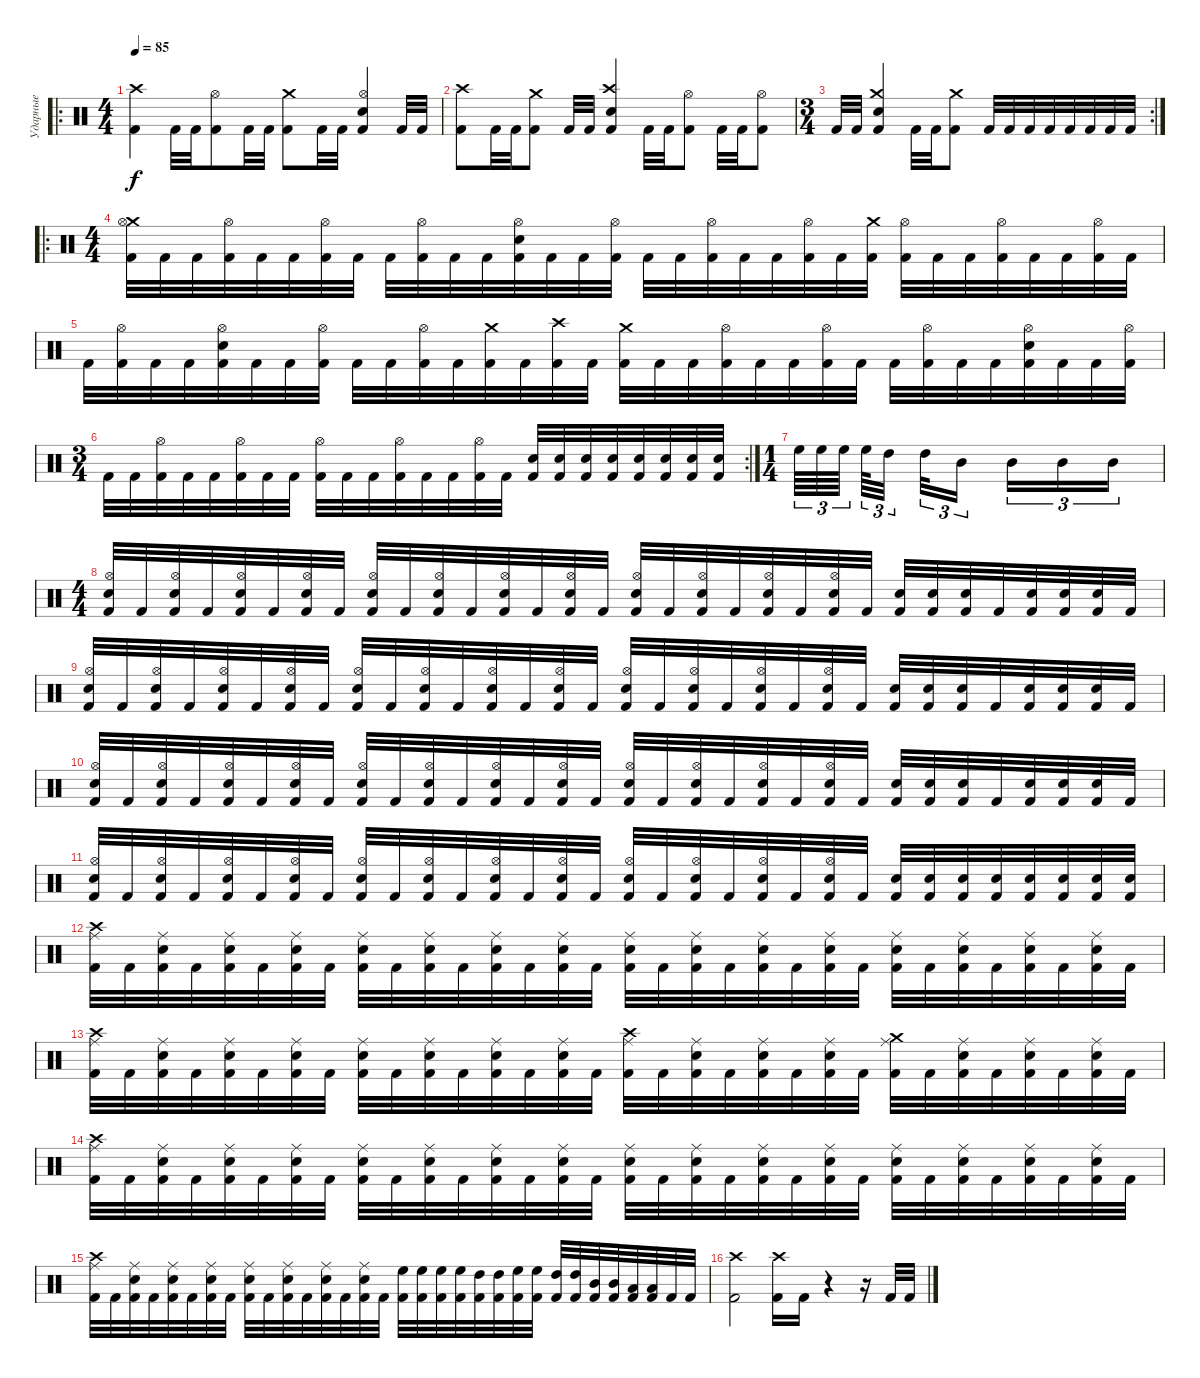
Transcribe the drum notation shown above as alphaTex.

\track ("Ударные" "Ударные") {instrument percussion}
\staff {score}
\articulation defaults
\ro
\ts (4 4)
\tempo 85
\clef neutral
\ks c
("Kick (hit) 2" "Crash high (hit)").4{dy f} "Kick (hit) 2".32 "Kick (hit) 2".32 ("Kick (hit) 2" "Hi-Hat (open)").8 "Kick (hit) 2".32 "Kick (hit) 2".32 ("Kick (hit) 2" "Crash medium (hit)").8 "Kick (hit) 2".32 "Kick (hit) 2".32 ("Kick (hit) 2" "Hi-Hat (open)" "Electric Snare (hit)").4 "Kick (hit) 2".32 "Kick (hit) 2".32 |
("Crash high (hit)" "Kick (hit) 2").8 "Kick (hit) 2".32 "Kick (hit) 2".32 ("Crash medium (hit)" "Kick (hit) 2").8 "Kick (hit) 2".32 "Kick (hit) 2".32 ("Crash high (hit)" "Electric Snare (hit)" "Kick (hit) 2").4 "Kick (hit) 2".32 "Kick (hit) 2".32 ("Hi-Hat (open)" "Kick (hit) 2").8 "Kick (hit) 2".32 "Kick (hit) 2".32 ("Hi-Hat (open)" "Kick (hit) 2").8 |
\rc 2
\ts (3 4)
"Kick (hit) 2".32 "Kick (hit) 2".32 ("Electric Snare (hit)" "Crash medium (hit)" "Kick (hit) 2").4 "Kick (hit) 2".32 "Kick (hit) 2".32 ("Crash medium (hit)" "Kick (hit) 2").8 "Kick (hit) 2".32 "Kick (hit) 2".32 "Kick (hit) 2".32 "Kick (hit) 2".32 "Kick (hit) 2".32 "Kick (hit) 2".32 "Kick (hit) 2".32 "Kick (hit) 2".32 |
\ro
\ts (4 4)
("Crash medium (hit)" "Hi-Hat (open)" "Kick (hit) 2").32 "Kick (hit) 2".32 "Kick (hit) 2".32 ("Hi-Hat (open)" "Kick (hit) 2").32 "Kick (hit) 2".32 "Kick (hit) 2".32 ("Hi-Hat (open)" "Kick (hit) 2").32 "Kick (hit) 2".32 "Kick (hit) 2".32 ("Hi-Hat (open)" "Kick (hit) 2").32 "Kick (hit) 2".32 "Kick (hit) 2".32 ("Hi-Hat (open)" "Electric Snare (hit)" "Kick (hit) 2").32 "Kick (hit) 2".32 "Kick (hit) 2".32 ("Hi-Hat (open)" "Kick (hit) 2").32 "Kick (hit) 2".32 "Kick (hit) 2".32 ("Hi-Hat (open)" "Kick (hit) 2").32 "Kick (hit) 2".32 "Kick (hit) 2".32 ("Hi-Hat (open)" "Kick (hit) 2").32 "Kick (hit) 2".32 ("Crash medium (hit)" "Kick (hit) 2").32 ("Hi-Hat (open)" "Kick (hit) 2").32 "Kick (hit) 2".32 "Kick (hit) 2".32 ("Hi-Hat (open)" "Kick (hit) 2").32 "Kick (hit) 2".32 "Kick (hit) 2".32 ("Hi-Hat (open)" "Kick (hit) 2").32 "Kick (hit) 2".32 |
"Kick (hit) 2".32 ("Hi-Hat (open)" "Kick (hit) 2").32 "Kick (hit) 2".32 "Kick (hit) 2".32 ("Hi-Hat (open)" "Electric Snare (hit)" "Kick (hit) 2").32 "Kick (hit) 2".32 "Kick (hit) 2".32 ("Hi-Hat (open)" "Kick (hit) 2").32 "Kick (hit) 2".32 "Kick (hit) 2".32 ("Hi-Hat (open)" "Kick (hit) 2").32 "Kick (hit) 2".32 ("Crash medium (hit)" "Kick (hit) 2").32 "Kick (hit) 2".32 ("Crash high (hit)" "Kick (hit) 2").32 "Kick (hit) 2".32 ("Crash medium (hit)" "Kick (hit) 2").32 "Kick (hit) 2".32 "Kick (hit) 2".32 ("Hi-Hat (open)" "Kick (hit) 2").32 "Kick (hit) 2".32 "Kick (hit) 2".32 ("Hi-Hat (open)" "Kick (hit) 2").32 "Kick (hit) 2".32 "Kick (hit) 2".32 ("Hi-Hat (open)" "Kick (hit) 2").32 "Kick (hit) 2".32 "Kick (hit) 2".32 ("Hi-Hat (open)" "Electric Snare (hit)" "Kick (hit) 2").32 "Kick (hit) 2".32 "Kick (hit) 2".32 ("Hi-Hat (open)" "Kick (hit) 2").32 |
\rc 2
\ts (3 4)
"Kick (hit) 2".32 "Kick (hit) 2".32 ("Hi-Hat (open)" "Kick (hit) 2").32 "Kick (hit) 2".32 "Kick (hit) 2".32 ("Hi-Hat (open)" "Kick (hit) 2").32 "Kick (hit) 2".32 "Kick (hit) 2".32 ("Hi-Hat (open)" "Kick (hit) 2").32 "Kick (hit) 2".32 "Kick (hit) 2".32 ("Hi-Hat (open)" "Kick (hit) 2").32 "Kick (hit) 2".32 "Kick (hit) 2".32 ("Hi-Hat (open)" "Kick (hit) 2").32 "Kick (hit) 2".32 ("Electric Snare (hit)" "Kick (hit) 2").32 ("Electric Snare (hit)" "Kick (hit) 2").32 ("Electric Snare (hit)" "Kick (hit) 2").32 ("Electric Snare (hit)" "Kick (hit) 2").32 ("Electric Snare (hit)" "Kick (hit) 2").32 ("Electric Snare (hit)" "Kick (hit) 2").32 ("Electric Snare (hit)" "Kick (hit) 2").32 ("Electric Snare (hit)" "Kick (hit) 2").32 |
\ts (1 4)
"High Floor Tom (hit)".64{tu (3 2)} "High Floor Tom (hit)".64{tu (3 2)} "High Floor Tom (hit)".64{tu (3 2) beam splitsecondary} "High Floor Tom (hit)".64{tu (3 2)} "High Tom (hit)".32{tu (3 2) beam splitsecondary} "High Tom (hit)".32{tu (3 2)} "Mid Tom (hit)".16{tu (3 2) beam splitsecondary} "Mid Tom (hit)".16{tu (3 2)} "Mid Tom (hit)".16{tu (3 2)} "Mid Tom (hit)".16{tu (3 2)} |
\ts (4 4)
("Kick (hit) 2" "Electric Snare (hit)" "Hi-Hat (open)").32 "Kick (hit) 2".32 ("Kick (hit) 2" "Electric Snare (hit)" "Hi-Hat (open)").32 "Kick (hit) 2".32 ("Kick (hit) 2" "Electric Snare (hit)" "Hi-Hat (open)").32 "Kick (hit) 2".32 ("Kick (hit) 2" "Electric Snare (hit)" "Hi-Hat (open)").32 "Kick (hit) 2".32 ("Kick (hit) 2" "Electric Snare (hit)" "Hi-Hat (open)").32 "Kick (hit) 2".32 ("Kick (hit) 2" "Electric Snare (hit)" "Hi-Hat (open)").32 "Kick (hit) 2".32 ("Kick (hit) 2" "Electric Snare (hit)" "Hi-Hat (open)").32 "Kick (hit) 2".32 ("Kick (hit) 2" "Electric Snare (hit)" "Hi-Hat (open)").32 "Kick (hit) 2".32 ("Kick (hit) 2" "Electric Snare (hit)" "Hi-Hat (open)").32 "Kick (hit) 2".32 ("Kick (hit) 2" "Electric Snare (hit)" "Hi-Hat (open)").32 "Kick (hit) 2".32 ("Kick (hit) 2" "Electric Snare (hit)" "Hi-Hat (open)").32 "Kick (hit) 2".32 ("Kick (hit) 2" "Electric Snare (hit)" "Hi-Hat (open)").32 "Kick (hit) 2".32 ("Kick (hit) 2" "Electric Snare (hit)").32 ("Kick (hit) 2" "Electric Snare (hit)").32 ("Kick (hit) 2" "Electric Snare (hit)").32 "Kick (hit) 2".32 ("Kick (hit) 2" "Electric Snare (hit)").32 ("Kick (hit) 2" "Electric Snare (hit)").32 ("Kick (hit) 2" "Electric Snare (hit)").32 "Kick (hit) 2".32 |
("Kick (hit) 2" "Electric Snare (hit)" "Hi-Hat (open)").32 "Kick (hit) 2".32 ("Kick (hit) 2" "Electric Snare (hit)" "Hi-Hat (open)").32 "Kick (hit) 2".32 ("Kick (hit) 2" "Electric Snare (hit)" "Hi-Hat (open)").32 "Kick (hit) 2".32 ("Kick (hit) 2" "Electric Snare (hit)" "Hi-Hat (open)").32 "Kick (hit) 2".32 ("Kick (hit) 2" "Electric Snare (hit)" "Hi-Hat (open)").32 "Kick (hit) 2".32 ("Kick (hit) 2" "Electric Snare (hit)" "Hi-Hat (open)").32 "Kick (hit) 2".32 ("Kick (hit) 2" "Electric Snare (hit)" "Hi-Hat (open)").32 "Kick (hit) 2".32 ("Kick (hit) 2" "Electric Snare (hit)" "Hi-Hat (open)").32 "Kick (hit) 2".32 ("Kick (hit) 2" "Electric Snare (hit)" "Hi-Hat (open)").32 "Kick (hit) 2".32 ("Kick (hit) 2" "Electric Snare (hit)" "Hi-Hat (open)").32 "Kick (hit) 2".32 ("Kick (hit) 2" "Electric Snare (hit)" "Hi-Hat (open)").32 "Kick (hit) 2".32 ("Kick (hit) 2" "Electric Snare (hit)" "Hi-Hat (open)").32 "Kick (hit) 2".32 ("Kick (hit) 2" "Electric Snare (hit)").32 ("Kick (hit) 2" "Electric Snare (hit)").32 ("Kick (hit) 2" "Electric Snare (hit)").32 "Kick (hit) 2".32 ("Kick (hit) 2" "Electric Snare (hit)").32 ("Kick (hit) 2" "Electric Snare (hit)").32 ("Kick (hit) 2" "Electric Snare (hit)").32 "Kick (hit) 2".32 |
("Kick (hit) 2" "Electric Snare (hit)" "Hi-Hat (open)").32 "Kick (hit) 2".32 ("Kick (hit) 2" "Electric Snare (hit)" "Hi-Hat (open)").32 "Kick (hit) 2".32 ("Kick (hit) 2" "Electric Snare (hit)" "Hi-Hat (open)").32 "Kick (hit) 2".32 ("Kick (hit) 2" "Electric Snare (hit)" "Hi-Hat (open)").32 "Kick (hit) 2".32 ("Kick (hit) 2" "Electric Snare (hit)" "Hi-Hat (open)").32 "Kick (hit) 2".32 ("Kick (hit) 2" "Electric Snare (hit)" "Hi-Hat (open)").32 "Kick (hit) 2".32 ("Kick (hit) 2" "Electric Snare (hit)" "Hi-Hat (open)").32 "Kick (hit) 2".32 ("Kick (hit) 2" "Electric Snare (hit)" "Hi-Hat (open)").32 "Kick (hit) 2".32 ("Kick (hit) 2" "Electric Snare (hit)" "Hi-Hat (open)").32 "Kick (hit) 2".32 ("Kick (hit) 2" "Electric Snare (hit)" "Hi-Hat (open)").32 "Kick (hit) 2".32 ("Kick (hit) 2" "Electric Snare (hit)" "Hi-Hat (open)").32 "Kick (hit) 2".32 ("Kick (hit) 2" "Electric Snare (hit)" "Hi-Hat (open)").32 "Kick (hit) 2".32 ("Kick (hit) 2" "Electric Snare (hit)").32 ("Kick (hit) 2" "Electric Snare (hit)").32 ("Kick (hit) 2" "Electric Snare (hit)").32 "Kick (hit) 2".32 ("Kick (hit) 2" "Electric Snare (hit)").32 ("Kick (hit) 2" "Electric Snare (hit)").32 ("Kick (hit) 2" "Electric Snare (hit)").32 "Kick (hit) 2".32 |
("Kick (hit) 2" "Electric Snare (hit)" "Hi-Hat (open)").32 "Kick (hit) 2".32 ("Kick (hit) 2" "Electric Snare (hit)" "Hi-Hat (open)").32 "Kick (hit) 2".32 ("Kick (hit) 2" "Electric Snare (hit)" "Hi-Hat (open)").32 "Kick (hit) 2".32 ("Kick (hit) 2" "Electric Snare (hit)" "Hi-Hat (open)").32 "Kick (hit) 2".32 ("Kick (hit) 2" "Electric Snare (hit)" "Hi-Hat (open)").32 "Kick (hit) 2".32 ("Kick (hit) 2" "Electric Snare (hit)" "Hi-Hat (open)").32 "Kick (hit) 2".32 ("Kick (hit) 2" "Electric Snare (hit)" "Hi-Hat (open)").32 "Kick (hit) 2".32 ("Kick (hit) 2" "Electric Snare (hit)" "Hi-Hat (open)").32 "Kick (hit) 2".32 ("Kick (hit) 2" "Electric Snare (hit)" "Hi-Hat (open)").32 "Kick (hit) 2".32 ("Kick (hit) 2" "Electric Snare (hit)" "Hi-Hat (open)").32 "Kick (hit) 2".32 ("Kick (hit) 2" "Electric Snare (hit)" "Hi-Hat (open)").32 "Kick (hit) 2".32 ("Kick (hit) 2" "Electric Snare (hit)" "Hi-Hat (open)").32 "Kick (hit) 2".32 ("Kick (hit) 2" "Electric Snare (hit)").32 ("Kick (hit) 2" "Electric Snare (hit)").32 ("Kick (hit) 2" "Electric Snare (hit)").32 ("Kick (hit) 2" "Electric Snare (hit)").32 ("Kick (hit) 2" "Electric Snare (hit)").32 ("Kick (hit) 2" "Electric Snare (hit)").32 ("Kick (hit) 2" "Electric Snare (hit)").32 ("Kick (hit) 2" "Electric Snare (hit)").32 |
("Kick (hit) 2" "Crash high (hit)" "Ride (middle)").32 "Kick (hit) 2".32 ("Kick (hit) 2" "Electric Snare (hit)" "Ride (middle)").32 "Kick (hit) 2".32 ("Kick (hit) 2" "Electric Snare (hit)" "Ride (middle)").32 "Kick (hit) 2".32 ("Kick (hit) 2" "Electric Snare (hit)" "Ride (middle)").32 "Kick (hit) 2".32 ("Kick (hit) 2" "Electric Snare (hit)" "Ride (middle)").32 "Kick (hit) 2".32 ("Kick (hit) 2" "Electric Snare (hit)" "Ride (middle)").32 "Kick (hit) 2".32 ("Kick (hit) 2" "Electric Snare (hit)" "Ride (middle)").32 "Kick (hit) 2".32 ("Kick (hit) 2" "Electric Snare (hit)" "Ride (middle)").32 "Kick (hit) 2".32 ("Kick (hit) 2" "Electric Snare (hit)" "Ride (middle)").32 "Kick (hit) 2".32 ("Kick (hit) 2" "Electric Snare (hit)" "Ride (middle)").32 "Kick (hit) 2".32 ("Kick (hit) 2" "Electric Snare (hit)" "Ride (middle)").32 "Kick (hit) 2".32 ("Kick (hit) 2" "Electric Snare (hit)" "Ride (middle)").32 "Kick (hit) 2".32 ("Kick (hit) 2" "Electric Snare (hit)" "Ride (middle)").32 "Kick (hit) 2".32 ("Kick (hit) 2" "Electric Snare (hit)" "Ride (middle)").32 "Kick (hit) 2".32 ("Kick (hit) 2" "Electric Snare (hit)" "Ride (middle)").32 "Kick (hit) 2".32 ("Kick (hit) 2" "Electric Snare (hit)" "Ride (middle)").32 "Kick (hit) 2".32 |
("Kick (hit) 2" "Crash high (hit)" "Ride (middle)").32 "Kick (hit) 2".32 ("Kick (hit) 2" "Electric Snare (hit)" "Ride (middle)").32 "Kick (hit) 2".32 ("Kick (hit) 2" "Electric Snare (hit)" "Ride (middle)").32 "Kick (hit) 2".32 ("Kick (hit) 2" "Electric Snare (hit)" "Ride (middle)").32 "Kick (hit) 2".32 ("Kick (hit) 2" "Electric Snare (hit)" "Ride (middle)").32 "Kick (hit) 2".32 ("Kick (hit) 2" "Electric Snare (hit)" "Ride (middle)").32 "Kick (hit) 2".32 ("Kick (hit) 2" "Electric Snare (hit)" "Ride (middle)").32 "Kick (hit) 2".32 ("Kick (hit) 2" "Electric Snare (hit)" "Ride (middle)").32 "Kick (hit) 2".32 ("Kick (hit) 2" "Crash high (hit)" "Ride (middle)").32 "Kick (hit) 2".32 ("Kick (hit) 2" "Electric Snare (hit)" "Ride (middle)").32 "Kick (hit) 2".32 ("Kick (hit) 2" "Electric Snare (hit)" "Ride (middle)").32 "Kick (hit) 2".32 ("Kick (hit) 2" "Electric Snare (hit)" "Ride (middle)").32 "Kick (hit) 2".32 ("Kick (hit) 2" "Crash medium (hit)" "Ride (middle)").32 "Kick (hit) 2".32 ("Kick (hit) 2" "Electric Snare (hit)" "Ride (middle)").32 "Kick (hit) 2".32 ("Kick (hit) 2" "Electric Snare (hit)" "Ride (middle)").32 "Kick (hit) 2".32 ("Kick (hit) 2" "Electric Snare (hit)" "Ride (middle)").32 "Kick (hit) 2".32 |
("Kick (hit) 2" "Crash high (hit)" "Ride (middle)").32 "Kick (hit) 2".32 ("Kick (hit) 2" "Electric Snare (hit)" "Ride (middle)").32 "Kick (hit) 2".32 ("Kick (hit) 2" "Electric Snare (hit)" "Ride (middle)").32 "Kick (hit) 2".32 ("Kick (hit) 2" "Electric Snare (hit)" "Ride (middle)").32 "Kick (hit) 2".32 ("Kick (hit) 2" "Electric Snare (hit)" "Ride (middle)").32 "Kick (hit) 2".32 ("Kick (hit) 2" "Electric Snare (hit)" "Ride (middle)").32 "Kick (hit) 2".32 ("Kick (hit) 2" "Electric Snare (hit)" "Ride (middle)").32 "Kick (hit) 2".32 ("Kick (hit) 2" "Electric Snare (hit)" "Ride (middle)").32 "Kick (hit) 2".32 ("Kick (hit) 2" "Electric Snare (hit)" "Ride (middle)").32 "Kick (hit) 2".32 ("Kick (hit) 2" "Electric Snare (hit)" "Ride (middle)").32 "Kick (hit) 2".32 ("Kick (hit) 2" "Electric Snare (hit)" "Ride (middle)").32 "Kick (hit) 2".32 ("Kick (hit) 2" "Electric Snare (hit)" "Ride (middle)").32 "Kick (hit) 2".32 ("Kick (hit) 2" "Electric Snare (hit)" "Ride (middle)").32 "Kick (hit) 2".32 ("Kick (hit) 2" "Electric Snare (hit)" "Ride (middle)").32 "Kick (hit) 2".32 ("Kick (hit) 2" "Electric Snare (hit)" "Ride (middle)").32 "Kick (hit) 2".32 ("Kick (hit) 2" "Electric Snare (hit)" "Ride (middle)").32 "Kick (hit) 2".32 |
("Kick (hit) 2" "Crash high (hit)" "Ride (middle)").32 "Kick (hit) 2".32 ("Kick (hit) 2" "Electric Snare (hit)" "Ride (middle)").32 "Kick (hit) 2".32 ("Kick (hit) 2" "Electric Snare (hit)" "Ride (middle)").32 "Kick (hit) 2".32 ("Kick (hit) 2" "Electric Snare (hit)" "Ride (middle)").32 "Kick (hit) 2".32 ("Kick (hit) 2" "Electric Snare (hit)" "Ride (middle)").32 "Kick (hit) 2".32 ("Kick (hit) 2" "Electric Snare (hit)" "Ride (middle)").32 "Kick (hit) 2".32 ("Kick (hit) 2" "Electric Snare (hit)" "Ride (middle)").32 "Kick (hit) 2".32 ("Kick (hit) 2" "Electric Snare (hit)" "Ride (middle)").32 "Kick (hit) 2".32 ("Kick (hit) 2" "High Floor Tom (hit)").32 ("Kick (hit) 2" "High Floor Tom (hit)").32 ("Kick (hit) 2" "High Floor Tom (hit)").32 ("Kick (hit) 2" "High Floor Tom (hit)").32 ("Kick (hit) 2" "High Tom (hit)").32 ("Kick (hit) 2" "High Tom (hit)").32 ("Kick (hit) 2" "High Floor Tom (hit)").32 ("Kick (hit) 2" "High Floor Tom (hit)").32 ("Kick (hit) 2" "High Tom (hit)").32 ("Kick (hit) 2" "High Tom (hit)").32 ("Kick (hit) 2" "Mid Tom (hit)").32 ("Kick (hit) 2" "Mid Tom (hit)").32 ("Kick (hit) 2" "Low Tom (hit)").32 ("Kick (hit) 2" "Low Tom (hit)").32 "Kick (hit) 2".32 "Kick (hit) 2".32 |
("Kick (hit) 2" "Crash high (hit)").2 ("Kick (hit) 2" "Crash high (hit)").16 "Kick (hit) 2".16 r.4 r.16 "Kick (hit) 2".32 "Kick (hit) 2".32
